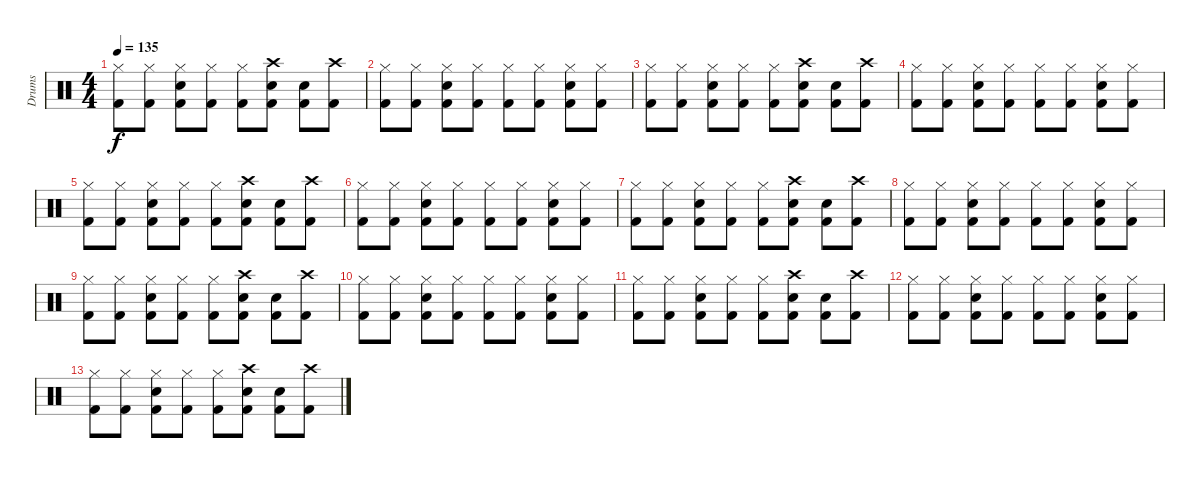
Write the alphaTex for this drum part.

\track ("Drums" "Drums") {instrument percussion}
\staff {score}
\articulation defaults
\ts (4 4)
\tempo 135
\clef neutral
\ks c
("Kick (hit) 2" "Hi-Hat (closed)").8{dy f} ("Kick (hit) 2" "Hi-Hat (closed)").8 ("Snare (hit) 2" "Kick (hit) 2" "Hi-Hat (closed)").8 ("Kick (hit) 2" "Hi-Hat (closed)").8 ("Kick (hit) 2" "Hi-Hat (closed)").8 ("Kick (hit) 2" "Crash high (hit)" "Snare (hit) 2").8 ("Snare (hit) 2" "Kick (hit) 2").8 ("Kick (hit) 2" "Crash high (hit)").8 |
("Kick (hit) 2" "Hi-Hat (closed)").8 ("Kick (hit) 2" "Hi-Hat (closed)").8 ("Snare (hit) 2" "Kick (hit) 2" "Hi-Hat (closed)").8 ("Kick (hit) 2" "Hi-Hat (closed)").8 ("Kick (hit) 2" "Hi-Hat (closed)").8 ("Kick (hit) 2" "Hi-Hat (closed)").8 ("Snare (hit) 2" "Kick (hit) 2" "Hi-Hat (closed)").8 ("Kick (hit) 2" "Hi-Hat (closed)").8 |
("Kick (hit) 2" "Hi-Hat (closed)").8 ("Kick (hit) 2" "Hi-Hat (closed)").8 ("Snare (hit) 2" "Kick (hit) 2" "Hi-Hat (closed)").8 ("Kick (hit) 2" "Hi-Hat (closed)").8 ("Kick (hit) 2" "Hi-Hat (closed)").8 ("Kick (hit) 2" "Crash high (hit)" "Snare (hit) 2").8 ("Snare (hit) 2" "Kick (hit) 2").8 ("Kick (hit) 2" "Crash high (hit)").8 |
("Kick (hit) 2" "Hi-Hat (closed)").8 ("Kick (hit) 2" "Hi-Hat (closed)").8 ("Snare (hit) 2" "Kick (hit) 2" "Hi-Hat (closed)").8 ("Kick (hit) 2" "Hi-Hat (closed)").8 ("Kick (hit) 2" "Hi-Hat (closed)").8 ("Kick (hit) 2" "Hi-Hat (closed)").8 ("Snare (hit) 2" "Kick (hit) 2" "Hi-Hat (closed)").8 ("Kick (hit) 2" "Hi-Hat (closed)").8 |
("Kick (hit) 2" "Hi-Hat (closed)").8 ("Kick (hit) 2" "Hi-Hat (closed)").8 ("Snare (hit) 2" "Kick (hit) 2" "Hi-Hat (closed)").8 ("Kick (hit) 2" "Hi-Hat (closed)").8 ("Kick (hit) 2" "Hi-Hat (closed)").8 ("Kick (hit) 2" "Crash high (hit)" "Snare (hit) 2").8 ("Snare (hit) 2" "Kick (hit) 2").8 ("Kick (hit) 2" "Crash high (hit)").8 |
("Kick (hit) 2" "Hi-Hat (closed)").8 ("Kick (hit) 2" "Hi-Hat (closed)").8 ("Snare (hit) 2" "Kick (hit) 2" "Hi-Hat (closed)").8 ("Kick (hit) 2" "Hi-Hat (closed)").8 ("Kick (hit) 2" "Hi-Hat (closed)").8 ("Kick (hit) 2" "Hi-Hat (closed)").8 ("Snare (hit) 2" "Kick (hit) 2" "Hi-Hat (closed)").8 ("Kick (hit) 2" "Hi-Hat (closed)").8 |
("Kick (hit) 2" "Hi-Hat (closed)").8 ("Kick (hit) 2" "Hi-Hat (closed)").8 ("Snare (hit) 2" "Kick (hit) 2" "Hi-Hat (closed)").8 ("Kick (hit) 2" "Hi-Hat (closed)").8 ("Kick (hit) 2" "Hi-Hat (closed)").8 ("Kick (hit) 2" "Crash high (hit)" "Snare (hit) 2").8 ("Snare (hit) 2" "Kick (hit) 2").8 ("Kick (hit) 2" "Crash high (hit)").8 |
("Kick (hit) 2" "Hi-Hat (closed)").8 ("Kick (hit) 2" "Hi-Hat (closed)").8 ("Snare (hit) 2" "Kick (hit) 2" "Hi-Hat (closed)").8 ("Kick (hit) 2" "Hi-Hat (closed)").8 ("Kick (hit) 2" "Hi-Hat (closed)").8 ("Kick (hit) 2" "Hi-Hat (closed)").8 ("Snare (hit) 2" "Kick (hit) 2" "Hi-Hat (closed)").8 ("Kick (hit) 2" "Hi-Hat (closed)").8 |
("Kick (hit) 2" "Hi-Hat (closed)").8 ("Kick (hit) 2" "Hi-Hat (closed)").8 ("Snare (hit) 2" "Kick (hit) 2" "Hi-Hat (closed)").8 ("Kick (hit) 2" "Hi-Hat (closed)").8 ("Kick (hit) 2" "Hi-Hat (closed)").8 ("Kick (hit) 2" "Crash high (hit)" "Snare (hit) 2").8 ("Snare (hit) 2" "Kick (hit) 2").8 ("Kick (hit) 2" "Crash high (hit)").8 |
("Kick (hit) 2" "Hi-Hat (closed)").8 ("Kick (hit) 2" "Hi-Hat (closed)").8 ("Snare (hit) 2" "Kick (hit) 2" "Hi-Hat (closed)").8 ("Kick (hit) 2" "Hi-Hat (closed)").8 ("Kick (hit) 2" "Hi-Hat (closed)").8 ("Kick (hit) 2" "Hi-Hat (closed)").8 ("Snare (hit) 2" "Kick (hit) 2" "Hi-Hat (closed)").8 ("Kick (hit) 2" "Hi-Hat (closed)").8 |
("Kick (hit) 2" "Hi-Hat (closed)").8 ("Kick (hit) 2" "Hi-Hat (closed)").8 ("Snare (hit) 2" "Kick (hit) 2" "Hi-Hat (closed)").8 ("Kick (hit) 2" "Hi-Hat (closed)").8 ("Kick (hit) 2" "Hi-Hat (closed)").8 ("Kick (hit) 2" "Crash high (hit)" "Snare (hit) 2").8 ("Snare (hit) 2" "Kick (hit) 2").8 ("Kick (hit) 2" "Crash high (hit)").8 |
("Kick (hit) 2" "Hi-Hat (closed)").8 ("Kick (hit) 2" "Hi-Hat (closed)").8 ("Snare (hit) 2" "Kick (hit) 2" "Hi-Hat (closed)").8 ("Kick (hit) 2" "Hi-Hat (closed)").8 ("Kick (hit) 2" "Hi-Hat (closed)").8 ("Kick (hit) 2" "Hi-Hat (closed)").8 ("Snare (hit) 2" "Kick (hit) 2" "Hi-Hat (closed)").8 ("Kick (hit) 2" "Hi-Hat (closed)").8 |
("Kick (hit) 2" "Hi-Hat (closed)").8 ("Kick (hit) 2" "Hi-Hat (closed)").8 ("Snare (hit) 2" "Kick (hit) 2" "Hi-Hat (closed)").8 ("Kick (hit) 2" "Hi-Hat (closed)").8 ("Kick (hit) 2" "Hi-Hat (closed)").8 ("Kick (hit) 2" "Crash high (hit)" "Snare (hit) 2").8 ("Snare (hit) 2" "Kick (hit) 2").8 ("Kick (hit) 2" "Crash high (hit)").8
